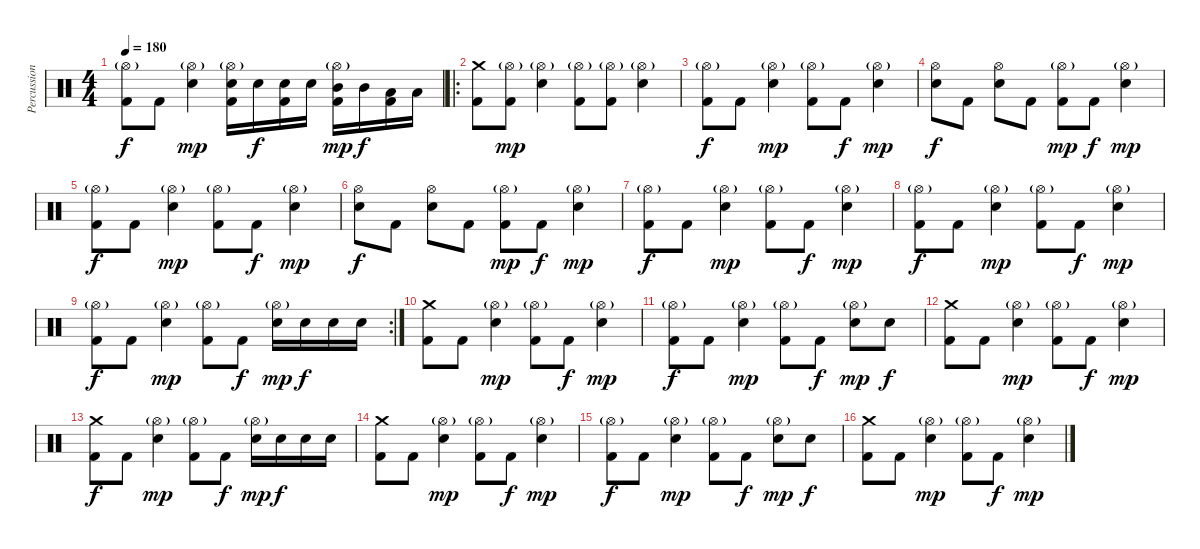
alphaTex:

\track ("Percussions" "Percussion") {instrument percussion}
\staff {score}
\articulation defaults
\ts (4 4)
\tempo 180
\clef neutral
\ks c
("Hi-Hat (open)"{g} "Kick (hit) 2").8{dy f} "Kick (hit) 2".8 ("Snare (hit) 2" "Hi-Hat (open)"{g}).4{dy mp} ("Snare (hit) 2" "Hi-Hat (open)"{g} "Kick (hit) 2").16 "Snare (hit) 2".16{dy f} ("Snare (hit) 2" "Kick (hit) 2").16 "Snare (hit) 2".16 ("Mid Tom (hit)" "Hi-Hat (open)"{g} "Kick (hit) 2").16{dy mp} "Mid Tom (hit)".16{dy f} ("Low Tom (hit)" "Kick (hit) 2").16 "Low Tom (hit)".16 |
\ro
("Crash medium (hit)" "Kick (hit) 2").8 ("Hi-Hat (open)"{g} "Kick (hit) 2").8{dy mp} ("Snare (hit) 2" "Hi-Hat (open)"{g}).4 ("Hi-Hat (open)"{g} "Kick (hit) 2").8 ("Hi-Hat (open)"{g} "Kick (hit) 2").8 ("Snare (hit) 2" "Hi-Hat (open)"{g}).4 |
("Hi-Hat (open)"{g} "Kick (hit) 2").8{dy f} "Kick (hit) 2".8 ("Snare (hit) 2" "Hi-Hat (open)"{g}).4{dy mp} ("Hi-Hat (open)"{g} "Kick (hit) 2").8 "Kick (hit) 2".8{dy f} ("Snare (hit) 2" "Hi-Hat (open)"{g}).4{dy mp} |
("Snare (hit) 2" "Hi-Hat (open)").8{dy f} "Kick (hit) 2".8 ("Snare (hit) 2" "Hi-Hat (open)").8 "Kick (hit) 2".8 ("Hi-Hat (open)"{g} "Kick (hit) 2").8{dy mp} "Kick (hit) 2".8{dy f} ("Snare (hit) 2" "Hi-Hat (open)"{g}).4{dy mp} |
("Hi-Hat (open)"{g} "Kick (hit) 2").8{dy f} "Kick (hit) 2".8 ("Snare (hit) 2" "Hi-Hat (open)"{g}).4{dy mp} ("Hi-Hat (open)"{g} "Kick (hit) 2").8 "Kick (hit) 2".8{dy f} ("Snare (hit) 2" "Hi-Hat (open)"{g}).4{dy mp} |
("Snare (hit) 2" "Hi-Hat (open)").8{dy f} "Kick (hit) 2".8 ("Snare (hit) 2" "Hi-Hat (open)").8 "Kick (hit) 2".8 ("Hi-Hat (open)"{g} "Kick (hit) 2").8{dy mp} "Kick (hit) 2".8{dy f} ("Snare (hit) 2" "Hi-Hat (open)"{g}).4{dy mp} |
("Hi-Hat (open)"{g} "Kick (hit) 2").8{dy f} "Kick (hit) 2".8 ("Snare (hit) 2" "Hi-Hat (open)"{g}).4{dy mp} ("Hi-Hat (open)"{g} "Kick (hit) 2").8 "Kick (hit) 2".8{dy f} ("Snare (hit) 2" "Hi-Hat (open)"{g}).4{dy mp} |
("Hi-Hat (open)"{g} "Kick (hit) 2").8{dy f} "Kick (hit) 2".8 ("Snare (hit) 2" "Hi-Hat (open)"{g}).4{dy mp} ("Hi-Hat (open)"{g} "Kick (hit) 2").8 "Kick (hit) 2".8{dy f} ("Snare (hit) 2" "Hi-Hat (open)"{g}).4{dy mp} |
\rc 2
("Hi-Hat (open)"{g} "Kick (hit) 2").8{dy f} "Kick (hit) 2".8 ("Snare (hit) 2" "Hi-Hat (open)"{g}).4{dy mp} ("Hi-Hat (open)"{g} "Kick (hit) 2").8 "Kick (hit) 2".8{dy f} ("Snare (hit) 2" "Hi-Hat (open)"{g}).16{dy mp} "Snare (hit) 2".16{dy f} "Snare (hit) 2".16 "Snare (hit) 2".16 |
("Crash medium (hit)" "Kick (hit) 2").8 "Kick (hit) 2".8 ("Snare (hit) 2" "Hi-Hat (open)"{g}).4{dy mp} ("Hi-Hat (open)"{g} "Kick (hit) 2").8 "Kick (hit) 2".8{dy f} ("Snare (hit) 2" "Hi-Hat (open)"{g}).4{dy mp} |
("Hi-Hat (open)"{g} "Kick (hit) 2").8{dy f} "Kick (hit) 2".8 ("Snare (hit) 2" "Hi-Hat (open)"{g}).4{dy mp} ("Hi-Hat (open)"{g} "Kick (hit) 2").8 "Kick (hit) 2".8{dy f} ("Snare (hit) 2" "Hi-Hat (open)"{g}).8{dy mp} "Snare (hit) 2".8{dy f} |
("Crash medium (hit)" "Kick (hit) 2").8 "Kick (hit) 2".8 ("Snare (hit) 2" "Hi-Hat (open)"{g}).4{dy mp} ("Hi-Hat (open)"{g} "Kick (hit) 2").8 "Kick (hit) 2".8{dy f} ("Snare (hit) 2" "Hi-Hat (open)"{g}).4{dy mp} |
("Crash medium (hit)" "Kick (hit) 2").8{dy f} "Kick (hit) 2".8 ("Snare (hit) 2" "Hi-Hat (open)"{g}).4{dy mp} ("Hi-Hat (open)"{g} "Kick (hit) 2").8 "Kick (hit) 2".8{dy f} ("Snare (hit) 2" "Hi-Hat (open)"{g}).16{dy mp} "Snare (hit) 2".16{dy f} "Snare (hit) 2".16 "Snare (hit) 2".16 |
("Crash medium (hit)" "Kick (hit) 2").8 "Kick (hit) 2".8 ("Snare (hit) 2" "Hi-Hat (open)"{g}).4{dy mp} ("Hi-Hat (open)"{g} "Kick (hit) 2").8 "Kick (hit) 2".8{dy f} ("Snare (hit) 2" "Hi-Hat (open)"{g}).4{dy mp} |
("Hi-Hat (open)"{g} "Kick (hit) 2").8{dy f} "Kick (hit) 2".8 ("Snare (hit) 2" "Hi-Hat (open)"{g}).4{dy mp} ("Hi-Hat (open)"{g} "Kick (hit) 2").8 "Kick (hit) 2".8{dy f} ("Snare (hit) 2" "Hi-Hat (open)"{g}).8{dy mp} "Snare (hit) 2".8{dy f} |
("Crash medium (hit)" "Kick (hit) 2").8 "Kick (hit) 2".8 ("Snare (hit) 2" "Hi-Hat (open)"{g}).4{dy mp} ("Hi-Hat (open)"{g} "Kick (hit) 2").8 "Kick (hit) 2".8{dy f} ("Snare (hit) 2" "Hi-Hat (open)"{g}).4{dy mp}
